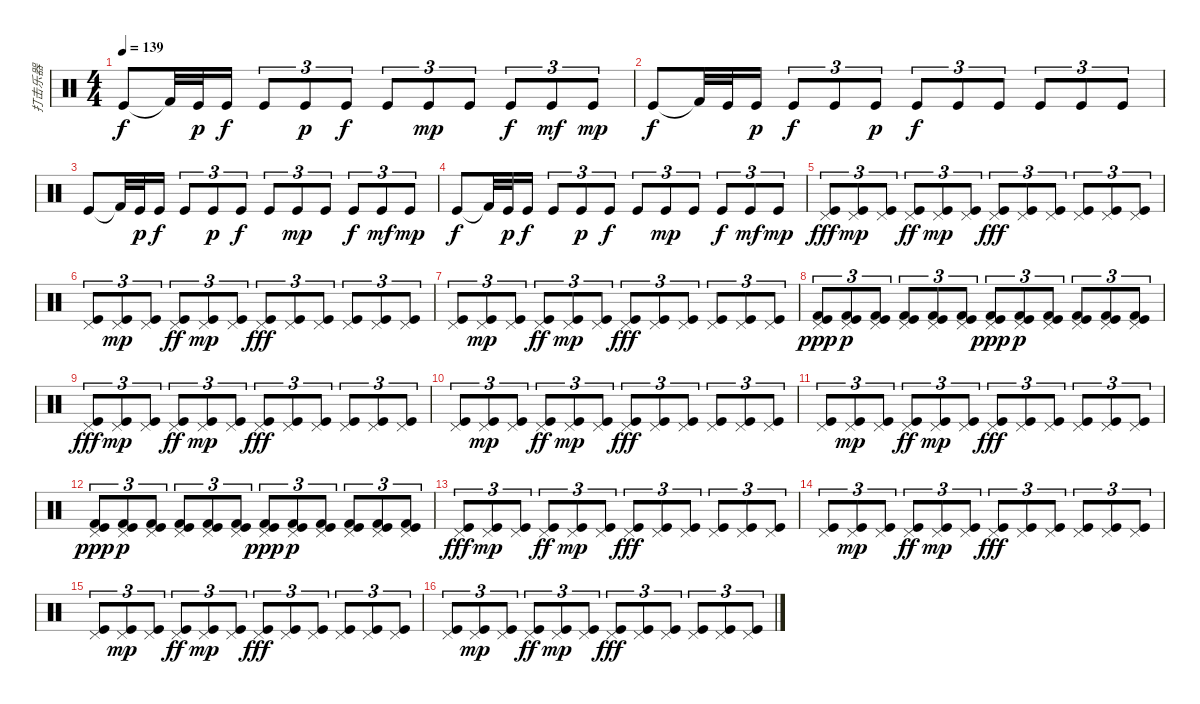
\track ("打击乐器" "打击乐器") {instrument percussion}
\staff {score}
\articulation defaults
\ts (4 4)
\tempo 139
\clef neutral
\ks c "Kick (hit)".8{dy f} "Kick (hit) 2"{t}.32 "Kick (hit)".32{dy p} "Kick (hit)".16{dy f} "Kick (hit)".8{tu (3 2)} "Kick (hit)".8{tu (3 2) dy p} "Kick (hit)".8{tu (3 2) dy f} "Kick (hit)".8{tu (3 2)} "Kick (hit)".8{tu (3 2) dy mp} "Kick (hit)".8{tu (3 2)} "Kick (hit)".8{tu (3 2) dy f} "Kick (hit)".8{tu (3 2) dy mf} "Kick (hit)".8{tu (3 2) dy mp}
|
"Kick (hit)".8{dy f} "Kick (hit) 2"{t}.32 "Kick (hit)".32 "Kick (hit)".16{dy p} "Kick (hit)".8{tu (3 2) dy f} "Kick (hit)".8{tu (3 2)} "Kick (hit)".8{tu (3 2) dy p} "Kick (hit)".8{tu (3 2) dy f} "Kick (hit)".8{tu (3 2)} "Kick (hit)".8{tu (3 2)} "Kick (hit)".8{tu (3 2)} "Kick (hit)".8{tu (3 2)} "Kick (hit)".8{tu (3 2)} |
"Kick (hit)".8 "Kick (hit) 2"{t}.32 "Kick (hit)".32{dy p} "Kick (hit)".16{dy f} "Kick (hit)".8{tu (3 2)} "Kick (hit)".8{tu (3 2) dy p} "Kick (hit)".8{tu (3 2) dy f} "Kick (hit)".8{tu (3 2)} "Kick (hit)".8{tu (3 2) dy mp} "Kick (hit)".8{tu (3 2)} "Kick (hit)".8{tu (3 2) dy f} "Kick (hit)".8{tu (3 2) dy mf} "Kick (hit)".8{tu (3 2) dy mp} |
"Kick (hit)".8{dy f} "Kick (hit) 2"{t}.32 "Kick (hit)".32{dy p} "Kick (hit)".16{dy f} "Kick (hit)".8{tu (3 2)} "Kick (hit)".8{tu (3 2) dy p} "Kick (hit)".8{tu (3 2) dy f} "Kick (hit)".8{tu (3 2)} "Kick (hit)".8{tu (3 2) dy mp} "Kick (hit)".8{tu (3 2)} "Kick (hit)".8{tu (3 2) dy f} "Kick (hit)".8{tu (3 2) dy mf} "Kick (hit)".8{tu (3 2) dy mp} |
("Kick (hit)" "Pedal Hi-Hat (hit)").8{tu (3 2) dy fff} ("Kick (hit)" "Pedal Hi-Hat (hit)").8{tu (3 2) dy mp} ("Kick (hit)" "Pedal Hi-Hat (hit)").8{tu (3 2)} ("Kick (hit)" "Pedal Hi-Hat (hit)").8{tu (3 2) dy ff} ("Kick (hit)" "Pedal Hi-Hat (hit)").8{tu (3 2) dy mp} ("Kick (hit)" "Pedal Hi-Hat (hit)").8{tu (3 2)} ("Kick (hit)" "Pedal Hi-Hat (hit)").8{tu (3 2) dy fff} ("Kick (hit)" "Pedal Hi-Hat (hit)").8{tu (3 2)} ("Kick (hit)" "Pedal Hi-Hat (hit)").8{tu (3 2)} ("Kick (hit)" "Pedal Hi-Hat (hit)").8{tu (3 2)} ("Kick (hit)" "Pedal Hi-Hat (hit)").8{tu (3 2)} ("Kick (hit)" "Pedal Hi-Hat (hit)").8{tu (3 2)} |
("Kick (hit)" "Pedal Hi-Hat (hit)").8{tu (3 2)} ("Kick (hit)" "Pedal Hi-Hat (hit)").8{tu (3 2) dy mp} ("Kick (hit)" "Pedal Hi-Hat (hit)").8{tu (3 2)} ("Kick (hit)" "Pedal Hi-Hat (hit)").8{tu (3 2) dy ff} ("Kick (hit)" "Pedal Hi-Hat (hit)").8{tu (3 2) dy mp} ("Kick (hit)" "Pedal Hi-Hat (hit)").8{tu (3 2)} ("Kick (hit)" "Pedal Hi-Hat (hit)").8{tu (3 2) dy fff} ("Kick (hit)" "Pedal Hi-Hat (hit)").8{tu (3 2)} ("Kick (hit)" "Pedal Hi-Hat (hit)").8{tu (3 2)} ("Kick (hit)" "Pedal Hi-Hat (hit)").8{tu (3 2)} ("Kick (hit)" "Pedal Hi-Hat (hit)").8{tu (3 2)} ("Kick (hit)" "Pedal Hi-Hat (hit)").8{tu (3 2)} |
("Kick (hit)" "Pedal Hi-Hat (hit)").8{tu (3 2)} ("Kick (hit)" "Pedal Hi-Hat (hit)").8{tu (3 2) dy mp} ("Kick (hit)" "Pedal Hi-Hat (hit)").8{tu (3 2)} ("Kick (hit)" "Pedal Hi-Hat (hit)").8{tu (3 2) dy ff} ("Kick (hit)" "Pedal Hi-Hat (hit)").8{tu (3 2) dy mp} ("Kick (hit)" "Pedal Hi-Hat (hit)").8{tu (3 2)} ("Kick (hit)" "Pedal Hi-Hat (hit)").8{tu (3 2) dy fff} ("Kick (hit)" "Pedal Hi-Hat (hit)").8{tu (3 2)} ("Kick (hit)" "Pedal Hi-Hat (hit)").8{tu (3 2)} ("Kick (hit)" "Pedal Hi-Hat (hit)").8{tu (3 2)} ("Kick (hit)" "Pedal Hi-Hat (hit)").8{tu (3 2)} ("Kick (hit)" "Pedal Hi-Hat (hit)").8{tu (3 2)} |
("Kick (hit)" "Pedal Hi-Hat (hit)" "Kick (hit) 2").8{tu (3 2) dy ppp} ("Kick (hit)" "Pedal Hi-Hat (hit)" "Kick (hit) 2").8{tu (3 2) dy p} ("Kick (hit)" "Pedal Hi-Hat (hit)" "Kick (hit) 2").8{tu (3 2)} ("Kick (hit)" "Pedal Hi-Hat (hit)" "Kick (hit) 2").8{tu (3 2)} ("Kick (hit)" "Pedal Hi-Hat (hit)" "Kick (hit) 2").8{tu (3 2)} ("Kick (hit)" "Pedal Hi-Hat (hit)" "Kick (hit) 2").8{tu (3 2)} ("Kick (hit)" "Pedal Hi-Hat (hit)" "Kick (hit) 2").8{tu (3 2) dy ppp} ("Kick (hit)" "Pedal Hi-Hat (hit)" "Kick (hit) 2").8{tu (3 2) dy p} ("Kick (hit)" "Pedal Hi-Hat (hit)" "Kick (hit) 2").8{tu (3 2)} ("Kick (hit)" "Pedal Hi-Hat (hit)" "Kick (hit) 2").8{tu (3 2)} ("Kick (hit)" "Pedal Hi-Hat (hit)" "Kick (hit) 2").8{tu (3 2)} ("Kick (hit)" "Pedal Hi-Hat (hit)" "Kick (hit) 2").8{tu (3 2)} |
("Kick (hit)" "Pedal Hi-Hat (hit)").8{tu (3 2) dy fff} ("Kick (hit)" "Pedal Hi-Hat (hit)").8{tu (3 2) dy mp} ("Kick (hit)" "Pedal Hi-Hat (hit)").8{tu (3 2)} ("Kick (hit)" "Pedal Hi-Hat (hit)").8{tu (3 2) dy ff} ("Kick (hit)" "Pedal Hi-Hat (hit)").8{tu (3 2) dy mp} ("Kick (hit)" "Pedal Hi-Hat (hit)").8{tu (3 2)} ("Kick (hit)" "Pedal Hi-Hat (hit)").8{tu (3 2) dy fff} ("Kick (hit)" "Pedal Hi-Hat (hit)").8{tu (3 2)} ("Kick (hit)" "Pedal Hi-Hat (hit)").8{tu (3 2)} ("Kick (hit)" "Pedal Hi-Hat (hit)").8{tu (3 2)} ("Kick (hit)" "Pedal Hi-Hat (hit)").8{tu (3 2)} ("Kick (hit)" "Pedal Hi-Hat (hit)").8{tu (3 2)} |
("Kick (hit)" "Pedal Hi-Hat (hit)").8{tu (3 2)} ("Kick (hit)" "Pedal Hi-Hat (hit)").8{tu (3 2) dy mp} ("Kick (hit)" "Pedal Hi-Hat (hit)").8{tu (3 2)} ("Kick (hit)" "Pedal Hi-Hat (hit)").8{tu (3 2) dy ff} ("Kick (hit)" "Pedal Hi-Hat (hit)").8{tu (3 2) dy mp} ("Kick (hit)" "Pedal Hi-Hat (hit)").8{tu (3 2)} ("Kick (hit)" "Pedal Hi-Hat (hit)").8{tu (3 2) dy fff} ("Kick (hit)" "Pedal Hi-Hat (hit)").8{tu (3 2)} ("Kick (hit)" "Pedal Hi-Hat (hit)").8{tu (3 2)} ("Kick (hit)" "Pedal Hi-Hat (hit)").8{tu (3 2)} ("Kick (hit)" "Pedal Hi-Hat (hit)").8{tu (3 2)} ("Kick (hit)" "Pedal Hi-Hat (hit)").8{tu (3 2)} |
("Kick (hit)" "Pedal Hi-Hat (hit)").8{tu (3 2)} ("Kick (hit)" "Pedal Hi-Hat (hit)").8{tu (3 2) dy mp} ("Kick (hit)" "Pedal Hi-Hat (hit)").8{tu (3 2)} ("Kick (hit)" "Pedal Hi-Hat (hit)").8{tu (3 2) dy ff} ("Kick (hit)" "Pedal Hi-Hat (hit)").8{tu (3 2) dy mp} ("Kick (hit)" "Pedal Hi-Hat (hit)").8{tu (3 2)} ("Kick (hit)" "Pedal Hi-Hat (hit)").8{tu (3 2) dy fff} ("Kick (hit)" "Pedal Hi-Hat (hit)").8{tu (3 2)} ("Kick (hit)" "Pedal Hi-Hat (hit)").8{tu (3 2)} ("Kick (hit)" "Pedal Hi-Hat (hit)").8{tu (3 2)} ("Kick (hit)" "Pedal Hi-Hat (hit)").8{tu (3 2)} ("Kick (hit)" "Pedal Hi-Hat (hit)").8{tu (3 2)} |
("Kick (hit)" "Pedal Hi-Hat (hit)" "Kick (hit) 2").8{tu (3 2) dy ppp} ("Kick (hit)" "Pedal Hi-Hat (hit)" "Kick (hit) 2").8{tu (3 2) dy p} ("Kick (hit)" "Pedal Hi-Hat (hit)" "Kick (hit) 2").8{tu (3 2)} ("Kick (hit)" "Pedal Hi-Hat (hit)" "Kick (hit) 2").8{tu (3 2)} ("Kick (hit)" "Pedal Hi-Hat (hit)" "Kick (hit) 2").8{tu (3 2)} ("Kick (hit)" "Pedal Hi-Hat (hit)" "Kick (hit) 2").8{tu (3 2)} ("Kick (hit)" "Pedal Hi-Hat (hit)" "Kick (hit) 2").8{tu (3 2) dy ppp} ("Kick (hit)" "Pedal Hi-Hat (hit)" "Kick (hit) 2").8{tu (3 2) dy p} ("Kick (hit)" "Pedal Hi-Hat (hit)" "Kick (hit) 2").8{tu (3 2)} ("Kick (hit)" "Pedal Hi-Hat (hit)" "Kick (hit) 2").8{tu (3 2)} ("Kick (hit)" "Pedal Hi-Hat (hit)" "Kick (hit) 2").8{tu (3 2)} ("Kick (hit)" "Pedal Hi-Hat (hit)" "Kick (hit) 2").8{tu (3 2)} |
("Kick (hit)" "Pedal Hi-Hat (hit)").8{tu (3 2) dy fff} ("Kick (hit)" "Pedal Hi-Hat (hit)").8{tu (3 2) dy mp} ("Kick (hit)" "Pedal Hi-Hat (hit)").8{tu (3 2)} ("Kick (hit)" "Pedal Hi-Hat (hit)").8{tu (3 2) dy ff} ("Kick (hit)" "Pedal Hi-Hat (hit)").8{tu (3 2) dy mp} ("Kick (hit)" "Pedal Hi-Hat (hit)").8{tu (3 2)} ("Kick (hit)" "Pedal Hi-Hat (hit)").8{tu (3 2) dy fff} ("Kick (hit)" "Pedal Hi-Hat (hit)").8{tu (3 2)} ("Kick (hit)" "Pedal Hi-Hat (hit)").8{tu (3 2)} ("Kick (hit)" "Pedal Hi-Hat (hit)").8{tu (3 2)} ("Kick (hit)" "Pedal Hi-Hat (hit)").8{tu (3 2)} ("Kick (hit)" "Pedal Hi-Hat (hit)").8{tu (3 2)} |
("Kick (hit)" "Pedal Hi-Hat (hit)").8{tu (3 2)} ("Kick (hit)" "Pedal Hi-Hat (hit)").8{tu (3 2) dy mp} ("Kick (hit)" "Pedal Hi-Hat (hit)").8{tu (3 2)} ("Kick (hit)" "Pedal Hi-Hat (hit)").8{tu (3 2) dy ff} ("Kick (hit)" "Pedal Hi-Hat (hit)").8{tu (3 2) dy mp} ("Kick (hit)" "Pedal Hi-Hat (hit)").8{tu (3 2)} ("Kick (hit)" "Pedal Hi-Hat (hit)").8{tu (3 2) dy fff} ("Kick (hit)" "Pedal Hi-Hat (hit)").8{tu (3 2)} ("Kick (hit)" "Pedal Hi-Hat (hit)").8{tu (3 2)} ("Kick (hit)" "Pedal Hi-Hat (hit)").8{tu (3 2)} ("Kick (hit)" "Pedal Hi-Hat (hit)").8{tu (3 2)} ("Kick (hit)" "Pedal Hi-Hat (hit)").8{tu (3 2)} |
("Kick (hit)" "Pedal Hi-Hat (hit)").8{tu (3 2)} ("Kick (hit)" "Pedal Hi-Hat (hit)").8{tu (3 2) dy mp} ("Kick (hit)" "Pedal Hi-Hat (hit)").8{tu (3 2)} ("Kick (hit)" "Pedal Hi-Hat (hit)").8{tu (3 2) dy ff} ("Kick (hit)" "Pedal Hi-Hat (hit)").8{tu (3 2) dy mp} ("Kick (hit)" "Pedal Hi-Hat (hit)").8{tu (3 2)} ("Kick (hit)" "Pedal Hi-Hat (hit)").8{tu (3 2) dy fff} ("Kick (hit)" "Pedal Hi-Hat (hit)").8{tu (3 2)} ("Kick (hit)" "Pedal Hi-Hat (hit)").8{tu (3 2)} ("Kick (hit)" "Pedal Hi-Hat (hit)").8{tu (3 2)} ("Kick (hit)" "Pedal Hi-Hat (hit)").8{tu (3 2)} ("Kick (hit)" "Pedal Hi-Hat (hit)").8{tu (3 2)} |
("Kick (hit)" "Pedal Hi-Hat (hit)").8{tu (3 2)} ("Kick (hit)" "Pedal Hi-Hat (hit)").8{tu (3 2) dy mp} ("Kick (hit)" "Pedal Hi-Hat (hit)").8{tu (3 2)} ("Kick (hit)" "Pedal Hi-Hat (hit)").8{tu (3 2) dy ff} ("Kick (hit)" "Pedal Hi-Hat (hit)").8{tu (3 2) dy mp} ("Kick (hit)" "Pedal Hi-Hat (hit)").8{tu (3 2)} ("Kick (hit)" "Pedal Hi-Hat (hit)").8{tu (3 2) dy fff} ("Kick (hit)" "Pedal Hi-Hat (hit)").8{tu (3 2)} ("Kick (hit)" "Pedal Hi-Hat (hit)").8{tu (3 2)} ("Kick (hit)" "Pedal Hi-Hat (hit)").8{tu (3 2)} ("Kick (hit)" "Pedal Hi-Hat (hit)").8{tu (3 2)} ("Kick (hit)" "Pedal Hi-Hat (hit)").8{tu (3 2)}
